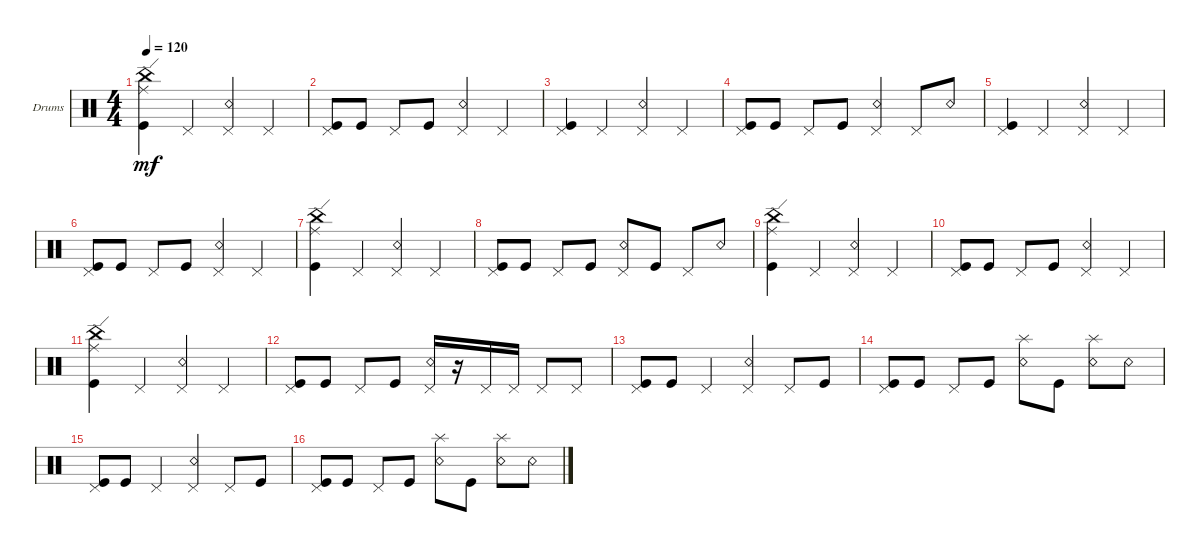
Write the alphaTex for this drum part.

\defaultSystemsLayout 4
\bracketExtendMode groupsimilarinstruments
\firstSystemTrackNameOrientation horizontal
\otherSystemsTrackNameOrientation horizontal
\track ("Roman Vorontcov" "Drums") {instrument percussion}
\staff {score}
\articulation defaults
\ts (4 4)
\tempo 120
\clef neutral
\ks c
("Kick (hit)" "China (hit)" "Ride (edge)").4{dy mf} "Pedal Hi-Hat (hit)".4 ("Pedal Hi-Hat (hit)" "Snare (rim shot)").4 "Pedal Hi-Hat (hit)".4 |
("Kick (hit)" "Pedal Hi-Hat (hit)").8 "Kick (hit)".8 "Pedal Hi-Hat (hit)".8 "Kick (hit)".8 ("Pedal Hi-Hat (hit)" "Snare (rim shot)").4 "Pedal Hi-Hat (hit)".4 |
("Kick (hit)" "Pedal Hi-Hat (hit)").4 "Pedal Hi-Hat (hit)".4 ("Pedal Hi-Hat (hit)" "Snare (rim shot)").4 "Pedal Hi-Hat (hit)".4 |
("Kick (hit)" "Pedal Hi-Hat (hit)").8 "Kick (hit)".8 "Pedal Hi-Hat (hit)".8 "Kick (hit)".8 ("Pedal Hi-Hat (hit)" "Snare (rim shot)").4 "Pedal Hi-Hat (hit)".8 "Snare (rim shot)".8 |
("Kick (hit)" "Pedal Hi-Hat (hit)").4 "Pedal Hi-Hat (hit)".4 ("Pedal Hi-Hat (hit)" "Snare (rim shot)").4 "Pedal Hi-Hat (hit)".4 |
("Kick (hit)" "Pedal Hi-Hat (hit)").8 "Kick (hit)".8 "Pedal Hi-Hat (hit)".8 "Kick (hit)".8 ("Pedal Hi-Hat (hit)" "Snare (rim shot)").4 "Pedal Hi-Hat (hit)".4 |
("Kick (hit)" "China (hit)" "Ride (edge)").4 "Pedal Hi-Hat (hit)".4 ("Pedal Hi-Hat (hit)" "Snare (rim shot)").4 "Pedal Hi-Hat (hit)".4 |
("Kick (hit)" "Pedal Hi-Hat (hit)").8 "Kick (hit)".8 "Pedal Hi-Hat (hit)".8 "Kick (hit)".8 ("Pedal Hi-Hat (hit)" "Snare (rim shot)").8 "Kick (hit)".8 "Pedal Hi-Hat (hit)".8 "Snare (rim shot)".8 |
("Kick (hit)" "China (hit)" "Ride (edge)").4 "Pedal Hi-Hat (hit)".4 ("Pedal Hi-Hat (hit)" "Snare (rim shot)").4 "Pedal Hi-Hat (hit)".4 |
("Kick (hit)" "Pedal Hi-Hat (hit)").8 "Kick (hit)".8 "Pedal Hi-Hat (hit)".8 "Kick (hit)".8 ("Pedal Hi-Hat (hit)" "Snare (rim shot)").4 "Pedal Hi-Hat (hit)".4 |
("Kick (hit)" "China (hit)" "Ride (edge)").4 "Pedal Hi-Hat (hit)".4 ("Pedal Hi-Hat (hit)" "Snare (rim shot)").4 "Pedal Hi-Hat (hit)".4 |
("Kick (hit)" "Pedal Hi-Hat (hit)").8 "Kick (hit)".8 "Pedal Hi-Hat (hit)".8 "Kick (hit)".8 ("Pedal Hi-Hat (hit)" "Snare (rim shot)").16 r.16 "Pedal Hi-Hat (hit)".16 "Pedal Hi-Hat (hit)".16 "Pedal Hi-Hat (hit)".8 "Pedal Hi-Hat (hit)".8 |
("Kick (hit)" "Pedal Hi-Hat (hit)").8 "Kick (hit)".8 "Pedal Hi-Hat (hit)".4 ("Snare (rim shot)" "Pedal Hi-Hat (hit)").4 "Pedal Hi-Hat (hit)".8 "Kick (hit)".8 |
("Kick (hit)" "Pedal Hi-Hat (hit)").8 "Kick (hit)".8 "Pedal Hi-Hat (hit)".8 "Kick (hit)".8 ("Snare (rim shot)" "Splash (hit)").8 "Kick (hit)".8 ("Snare (rim shot)" "Splash (hit)").8 "Snare (rim shot)".8 |
("Kick (hit)" "Pedal Hi-Hat (hit)").8 "Kick (hit)".8 "Pedal Hi-Hat (hit)".4 ("Snare (rim shot)" "Pedal Hi-Hat (hit)").4 "Pedal Hi-Hat (hit)".8 "Kick (hit)".8 |
("Kick (hit)" "Pedal Hi-Hat (hit)").8 "Kick (hit)".8 "Pedal Hi-Hat (hit)".8 "Kick (hit)".8 ("Snare (rim shot)" "Splash (hit)").8 "Kick (hit)".8 ("Snare (rim shot)" "Splash (hit)").8 "Snare (rim shot)".8
